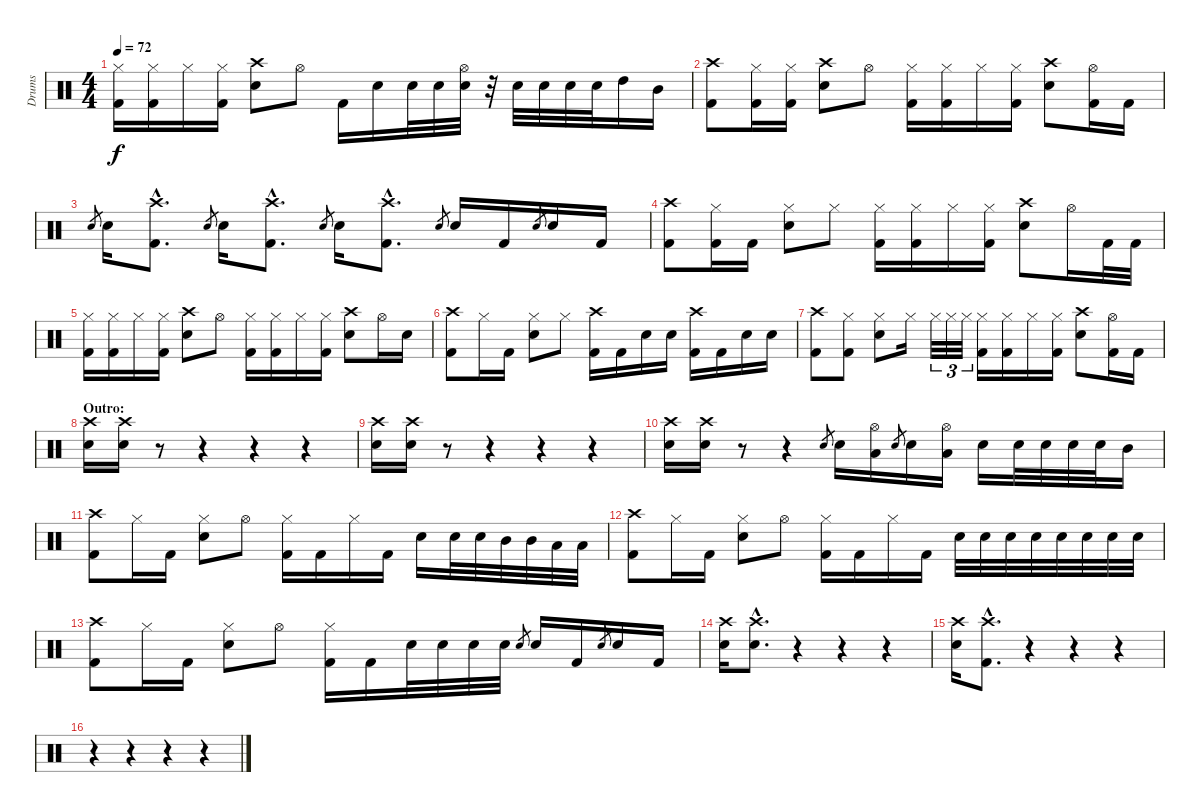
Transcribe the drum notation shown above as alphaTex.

\track ("Drums" "Drums") {instrument percussion}
\staff {score}
\articulation defaults
\ts (4 4)
\tempo 72
\clef neutral
\ks c
("Hi-Hat (closed)" "Kick (hit) 2").16{dy f} ("Hi-Hat (closed)" "Kick (hit) 2").16 "Hi-Hat (closed)".16 ("Hi-Hat (closed)" "Kick (hit) 2").16 ("Crash high (hit)" "Electric Snare (hit)").8 "Hi-Hat (open)".8 "Kick (hit) 2".16 "Electric Snare (hit)".16 "Electric Snare (hit)".32 "Electric Snare (hit)".32 ("Hi-Hat (open)" "Electric Snare (hit)").32 r.32 "Electric Snare (hit)".32 "Electric Snare (hit)".32 "Electric Snare (hit)".32 "Electric Snare (hit)".32 "High Tom (hit)".16 "Mid Tom (hit)".16 |
("Crash high (hit)" "Kick (hit) 2").8 ("Hi-Hat (closed)" "Kick (hit) 2").16 ("Hi-Hat (closed)" "Kick (hit) 2").16 ("Crash high (hit)" "Electric Snare (hit)").8 "Hi-Hat (open)".8 ("Hi-Hat (closed)" "Kick (hit) 2").16 ("Hi-Hat (closed)" "Kick (hit) 2").16 "Hi-Hat (closed)".16 ("Hi-Hat (closed)" "Kick (hit) 2").16 ("Crash high (hit)" "Electric Snare (hit)").8 ("Hi-Hat (open)" "Kick (hit) 2").16 "Kick (hit) 2".16 |
"Electric Snare (hit)".8{gr} "Electric Snare (hit)".16 ("Crash high (hit)"{hac} "Kick (hit) 2"{hac}).8{d} "Electric Snare (hit)".8{gr} "Electric Snare (hit)".16 ("Crash high (hit)"{hac} "Kick (hit) 2"{hac}).8{d} "Electric Snare (hit)".8{gr} "Electric Snare (hit)".16 ("Crash high (hit)"{hac} "Kick (hit) 2"{hac}).8{d} "Electric Snare (hit)".8{gr} "Electric Snare (hit)".16 "Kick (hit) 2".16 "Electric Snare (hit)".8{gr} "Electric Snare (hit)".16 "Kick (hit) 2".16 |
("Crash high (hit)" "Kick (hit) 2").8 ("Hi-Hat (closed)" "Kick (hit) 2").16 "Kick (hit) 2".16 ("Hi-Hat (closed)" "Electric Snare (hit)").8 "Hi-Hat (closed)".8 ("Hi-Hat (closed)" "Kick (hit) 2").16 ("Hi-Hat (closed)" "Kick (hit) 2").16 "Hi-Hat (closed)".16 ("Hi-Hat (closed)" "Kick (hit) 2").16 ("Crash high (hit)" "Electric Snare (hit)").8 "Hi-Hat (open)".16 "Kick (hit) 2".32 "Kick (hit) 2".32 |
("Hi-Hat (closed)" "Kick (hit) 2").16 ("Hi-Hat (closed)" "Kick (hit) 2").16 "Hi-Hat (closed)".16 ("Hi-Hat (closed)" "Kick (hit) 2").16 ("Crash high (hit)" "Electric Snare (hit)").8 "Hi-Hat (open)".8 ("Hi-Hat (closed)" "Kick (hit) 2").16 ("Hi-Hat (closed)" "Kick (hit) 2").16 "Hi-Hat (closed)".16 ("Hi-Hat (closed)" "Kick (hit) 2").16 ("Crash high (hit)" "Electric Snare (hit)").8 "Hi-Hat (open)".16 "Electric Snare (hit)".16 |
("Crash high (hit)" "Kick (hit) 2").8 "Hi-Hat (closed)".16 "Kick (hit) 2".16 ("Hi-Hat (closed)" "Electric Snare (hit)").8 "Hi-Hat (closed)".8 ("Crash high (hit)" "Kick (hit) 2").16 "Kick (hit) 2".16 "Electric Snare (hit)".16 "Electric Snare (hit)".16 ("Crash high (hit)" "Kick (hit) 2").16 "Kick (hit) 2".16 "Electric Snare (hit)".16 "Electric Snare (hit)".16 |
("Crash high (hit)" "Kick (hit) 2").8 ("Hi-Hat (closed)" "Kick (hit) 2").8 ("Hi-Hat (closed)" "Electric Snare (hit)").8 "Hi-Hat (closed)".16 "Hi-Hat (closed)".32{tu (3 2)} "Hi-Hat (closed)".32{tu (3 2)} "Hi-Hat (closed)".32{tu (3 2)} ("Hi-Hat (closed)" "Kick (hit) 2").16 ("Hi-Hat (closed)" "Kick (hit) 2").16 "Hi-Hat (closed)".16 ("Hi-Hat (closed)" "Kick (hit) 2").16 ("Crash high (hit)" "Electric Snare (hit)").8 ("Hi-Hat (open)" "Kick (hit) 2").16 "Kick (hit) 2".16 |
\section ("" "Outro:")
("Crash high (hit)" "Electric Snare (hit)").16 ("Crash high (hit)" "Electric Snare (hit)").16 r.8 r.4 r.4 r.4 |
("Crash high (hit)" "Electric Snare (hit)").16 ("Crash high (hit)" "Electric Snare (hit)").16 r.8 r.4 r.4 r.4 |
("Crash high (hit)" "Electric Snare (hit)").16 ("Crash high (hit)" "Electric Snare (hit)").16 r.8 r.4 "Electric Snare (hit)".8{gr} "Electric Snare (hit)".16 ("Hi-Hat (open)" "Low Tom (hit)").16 "Electric Snare (hit)".8{gr} "Electric Snare (hit)".16 ("Hi-Hat (open)" "Low Tom (hit)").16 "Electric Snare (hit)".16 "Electric Snare (hit)".32 "Electric Snare (hit)".32 "Electric Snare (hit)".32 "Electric Snare (hit)".32 "Mid Tom (hit)".16 |
("Crash high (hit)" "Kick (hit) 2").8 "Hi-Hat (closed)".16 "Kick (hit) 2".16 ("Hi-Hat (closed)" "Electric Snare (hit)").8 "Hi-Hat (open)".8 ("Hi-Hat (closed)" "Kick (hit) 2").16 "Kick (hit) 2".16 "Hi-Hat (closed)".16 "Kick (hit) 2".16 "Electric Snare (hit)".16 "Electric Snare (hit)".32 "Electric Snare (hit)".32 "Mid Tom (hit)".32 "Mid Tom (hit)".32 "Low Tom (hit)".32 "Low Tom (hit)".32 |
("Crash high (hit)" "Kick (hit) 2").8 "Hi-Hat (closed)".16 "Kick (hit) 2".16 ("Hi-Hat (closed)" "Electric Snare (hit)").8 "Hi-Hat (open)".8 ("Hi-Hat (closed)" "Kick (hit) 2").16 "Kick (hit) 2".16 "Hi-Hat (closed)".16 "Kick (hit) 2".16 "Electric Snare (hit)".32 "Electric Snare (hit)".32 "Electric Snare (hit)".32 "Electric Snare (hit)".32 "Electric Snare (hit)".32 "Electric Snare (hit)".32 "Electric Snare (hit)".32 "Electric Snare (hit)".32 |
("Crash high (hit)" "Kick (hit) 2").8 "Hi-Hat (closed)".16 "Kick (hit) 2".16 ("Hi-Hat (closed)" "Electric Snare (hit)").8 "Hi-Hat (open)".8 ("Hi-Hat (closed)" "Kick (hit) 2").16 "Kick (hit) 2".16 "Electric Snare (hit)".32 "Electric Snare (hit)".32 "Electric Snare (hit)".32 "Electric Snare (hit)".32 "Electric Snare (hit)".8{gr} "Electric Snare (hit)".16 "Kick (hit) 2".16 "Electric Snare (hit)".8{gr} "Electric Snare (hit)".16 "Kick (hit) 2".16 |
("Crash high (hit)" "Electric Snare (hit)").16 ("Crash high (hit)"{hac} "Electric Snare (hit)"{hac}).8{d} r.4 r.4 r.4 |
("Crash high (hit)" "Electric Snare (hit)").16 ("Crash high (hit)"{hac} "Kick (hit) 2"{hac}).8{d} r.4 r.4 r.4 |
r.4 r.4 r.4 r.4
